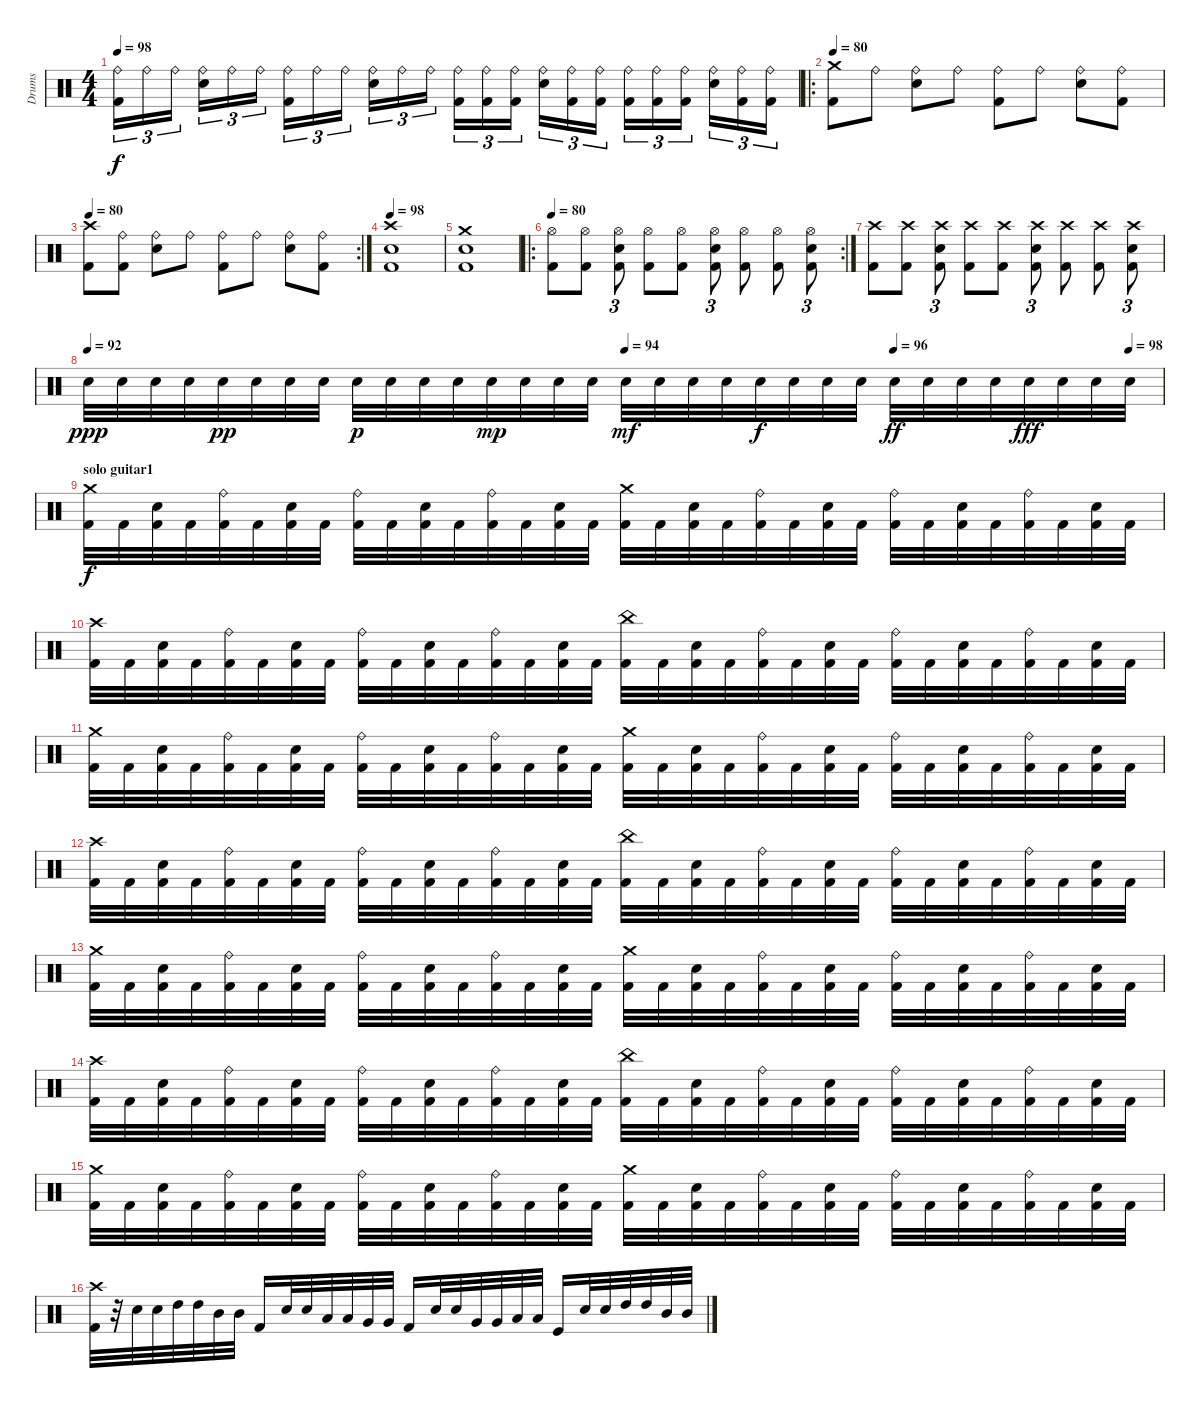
\track ("Drums" "Drums") {instrument percussion}
\staff {score}
\articulation defaults
\ts (4 4)
\tempo 98
\clef neutral
\ks c
("Ride (bell)" "Kick (hit) 2").16{tu (3 2) dy f} "Ride (bell)".16{tu (3 2)} "Ride (bell)".16{tu (3 2)} ("Ride (bell)" "Electric Snare (hit)").16{tu (3 2)} "Ride (bell)".16{tu (3 2)} "Ride (bell)".16{tu (3 2)} ("Ride (bell)" "Kick (hit) 2").16{tu (3 2)} "Ride (bell)".16{tu (3 2)} "Ride (bell)".16{tu (3 2)} ("Ride (bell)" "Electric Snare (hit)").16{tu (3 2)} "Ride (bell)".16{tu (3 2)} "Ride (bell)".16{tu (3 2)} ("Ride (bell)" "Kick (hit) 2").16{tu (3 2)} ("Ride (bell)" "Kick (hit) 2").16{tu (3 2)} ("Ride (bell)" "Kick (hit) 2").16{tu (3 2)} ("Ride (bell)" "Electric Snare (hit)").16{tu (3 2)} ("Ride (bell)" "Kick (hit) 2").16{tu (3 2)} ("Ride (bell)" "Kick (hit) 2").16{tu (3 2)} ("Ride (bell)" "Kick (hit) 2").16{tu (3 2)} ("Ride (bell)" "Kick (hit) 2").16{tu (3 2)} ("Ride (bell)" "Kick (hit) 2").16{tu (3 2)} ("Ride (bell)" "Electric Snare (hit)").16{tu (3 2)} ("Ride (bell)" "Kick (hit) 2").16{tu (3 2)} ("Ride (bell)" "Kick (hit) 2").16{tu (3 2)} |
\ro
\tempo 80
("Crash medium (hit)" "Kick (hit) 2").8 "Ride (bell)".8 ("Ride (bell)" "Electric Snare (hit)").8 "Ride (bell)".8 ("Ride (bell)" "Kick (hit) 2").8 "Ride (bell)".8 ("Ride (bell)" "Electric Snare (hit)").8 ("Ride (bell)" "Kick (hit) 2").8 |
\rc 2
\tempo 80
("Crash high (hit)" "Kick (hit) 2").8 ("Ride (bell)" "Kick (hit) 2").8 ("Ride (bell)" "Electric Snare (hit)").8 "Ride (bell)".8 ("Ride (bell)" "Kick (hit) 2").8 "Ride (bell)".8 ("Ride (bell)" "Electric Snare (hit)").8 ("Ride (bell)" "Kick (hit) 2").8 |
\tempo 98
("Crash high (hit)" "Electric Snare (hit)" "Kick (hit) 2").1 |
("Crash medium (hit)" "Electric Snare (hit)" "Kick (hit) 2").1 |
\ro
\rc 2
\tempo 80
("Hi-Hat (open)" "Kick (hit) 2").8 ("Hi-Hat (open)" "Kick (hit) 2").8 ("Hi-Hat (open)" "Electric Snare (hit)" "Kick (hit) 2").8{tu (3 2)} ("Hi-Hat (open)" "Kick (hit) 2").8 ("Hi-Hat (open)" "Kick (hit) 2").8 ("Hi-Hat (open)" "Electric Snare (hit)" "Kick (hit) 2").8{tu (3 2)} ("Hi-Hat (open)" "Kick (hit) 2").8 ("Hi-Hat (open)" "Kick (hit) 2").8 ("Hi-Hat (open)" "Electric Snare (hit)" "Kick (hit) 2").8{tu (3 2)} |
("Crash high (hit)" "Kick (hit) 2").8 ("Crash high (hit)" "Kick (hit) 2").8 ("Crash high (hit)" "Electric Snare (hit)" "Kick (hit) 2").8{tu (3 2)} ("Crash high (hit)" "Kick (hit) 2").8 ("Crash high (hit)" "Kick (hit) 2").8 ("Crash high (hit)" "Electric Snare (hit)" "Kick (hit) 2").8{tu (3 2)} ("Crash high (hit)" "Kick (hit) 2").8 ("Crash high (hit)" "Kick (hit) 2").8 ("Crash high (hit)" "Electric Snare (hit)" "Kick (hit) 2").8{tu (3 2)} |
\tempo 92
\tempo (94 0.5)
\tempo (96 0.75)
\tempo (98 0.96875)
"Electric Snare (hit)".32{dy ppp} "Electric Snare (hit)".32 "Electric Snare (hit)".32 "Electric Snare (hit)".32 "Electric Snare (hit)".32{dy pp} "Electric Snare (hit)".32 "Electric Snare (hit)".32 "Electric Snare (hit)".32 "Electric Snare (hit)".32{dy p} "Electric Snare (hit)".32 "Electric Snare (hit)".32 "Electric Snare (hit)".32 "Electric Snare (hit)".32{dy mp} "Electric Snare (hit)".32 "Electric Snare (hit)".32 "Electric Snare (hit)".32 "Electric Snare (hit)".32{dy mf} "Electric Snare (hit)".32 "Electric Snare (hit)".32 "Electric Snare (hit)".32 "Electric Snare (hit)".32{dy f} "Electric Snare (hit)".32 "Electric Snare (hit)".32 "Electric Snare (hit)".32 "Electric Snare (hit)".32{dy ff} "Electric Snare (hit)".32 "Electric Snare (hit)".32 "Electric Snare (hit)".32 "Electric Snare (hit)".32{dy fff} "Electric Snare (hit)".32 "Electric Snare (hit)".32 "Electric Snare (hit)".32 |
\section ("" "solo guitar1")
("Crash medium (hit)" "Kick (hit) 2").32{dy f} "Kick (hit) 2".32 ("Electric Snare (hit)" "Kick (hit) 2").32 "Kick (hit) 2".32 ("Ride (bell)" "Kick (hit) 2").32 "Kick (hit) 2".32 ("Electric Snare (hit)" "Kick (hit) 2").32 "Kick (hit) 2".32 ("Ride (bell)" "Kick (hit) 2").32 "Kick (hit) 2".32 ("Electric Snare (hit)" "Kick (hit) 2").32 "Kick (hit) 2".32 ("Ride (bell)" "Kick (hit) 2").32 "Kick (hit) 2".32 ("Electric Snare (hit)" "Kick (hit) 2").32 "Kick (hit) 2".32 ("Crash medium (hit)" "Kick (hit) 2").32 "Kick (hit) 2".32 ("Electric Snare (hit)" "Kick (hit) 2").32 "Kick (hit) 2".32 ("Ride (bell)" "Kick (hit) 2").32 "Kick (hit) 2".32 ("Electric Snare (hit)" "Kick (hit) 2").32 "Kick (hit) 2".32 ("Ride (bell)" "Kick (hit) 2").32 "Kick (hit) 2".32 ("Electric Snare (hit)" "Kick (hit) 2").32 "Kick (hit) 2".32 ("Ride (bell)" "Kick (hit) 2").32 "Kick (hit) 2".32 ("Electric Snare (hit)" "Kick (hit) 2").32 "Kick (hit) 2".32 |
("Crash high (hit)" "Kick (hit) 2").32 "Kick (hit) 2".32 ("Electric Snare (hit)" "Kick (hit) 2").32 "Kick (hit) 2".32 ("Ride (bell)" "Kick (hit) 2").32 "Kick (hit) 2".32 ("Electric Snare (hit)" "Kick (hit) 2").32 "Kick (hit) 2".32 ("Ride (bell)" "Kick (hit) 2").32 "Kick (hit) 2".32 ("Electric Snare (hit)" "Kick (hit) 2").32 "Kick (hit) 2".32 ("Ride (bell)" "Kick (hit) 2").32 "Kick (hit) 2".32 ("Electric Snare (hit)" "Kick (hit) 2").32 "Kick (hit) 2".32 ("China (hit)" "Kick (hit) 2").32 "Kick (hit) 2".32 ("Electric Snare (hit)" "Kick (hit) 2").32 "Kick (hit) 2".32 ("Ride (bell)" "Kick (hit) 2").32 "Kick (hit) 2".32 ("Electric Snare (hit)" "Kick (hit) 2").32 "Kick (hit) 2".32 ("Ride (bell)" "Kick (hit) 2").32 "Kick (hit) 2".32 ("Electric Snare (hit)" "Kick (hit) 2").32 "Kick (hit) 2".32 ("Ride (bell)" "Kick (hit) 2").32 "Kick (hit) 2".32 ("Electric Snare (hit)" "Kick (hit) 2").32 "Kick (hit) 2".32 |
("Crash medium (hit)" "Kick (hit) 2").32 "Kick (hit) 2".32 ("Electric Snare (hit)" "Kick (hit) 2").32 "Kick (hit) 2".32 ("Ride (bell)" "Kick (hit) 2").32 "Kick (hit) 2".32 ("Electric Snare (hit)" "Kick (hit) 2").32 "Kick (hit) 2".32 ("Ride (bell)" "Kick (hit) 2").32 "Kick (hit) 2".32 ("Electric Snare (hit)" "Kick (hit) 2").32 "Kick (hit) 2".32 ("Ride (bell)" "Kick (hit) 2").32 "Kick (hit) 2".32 ("Electric Snare (hit)" "Kick (hit) 2").32 "Kick (hit) 2".32 ("Crash medium (hit)" "Kick (hit) 2").32 "Kick (hit) 2".32 ("Electric Snare (hit)" "Kick (hit) 2").32 "Kick (hit) 2".32 ("Ride (bell)" "Kick (hit) 2").32 "Kick (hit) 2".32 ("Electric Snare (hit)" "Kick (hit) 2").32 "Kick (hit) 2".32 ("Ride (bell)" "Kick (hit) 2").32 "Kick (hit) 2".32 ("Electric Snare (hit)" "Kick (hit) 2").32 "Kick (hit) 2".32 ("Ride (bell)" "Kick (hit) 2").32 "Kick (hit) 2".32 ("Electric Snare (hit)" "Kick (hit) 2").32 "Kick (hit) 2".32 |
("Crash high (hit)" "Kick (hit) 2").32 "Kick (hit) 2".32 ("Electric Snare (hit)" "Kick (hit) 2").32 "Kick (hit) 2".32 ("Ride (bell)" "Kick (hit) 2").32 "Kick (hit) 2".32 ("Electric Snare (hit)" "Kick (hit) 2").32 "Kick (hit) 2".32 ("Ride (bell)" "Kick (hit) 2").32 "Kick (hit) 2".32 ("Electric Snare (hit)" "Kick (hit) 2").32 "Kick (hit) 2".32 ("Ride (bell)" "Kick (hit) 2").32 "Kick (hit) 2".32 ("Electric Snare (hit)" "Kick (hit) 2").32 "Kick (hit) 2".32 ("China (hit)" "Kick (hit) 2").32 "Kick (hit) 2".32 ("Electric Snare (hit)" "Kick (hit) 2").32 "Kick (hit) 2".32 ("Ride (bell)" "Kick (hit) 2").32 "Kick (hit) 2".32 ("Electric Snare (hit)" "Kick (hit) 2").32 "Kick (hit) 2".32 ("Ride (bell)" "Kick (hit) 2").32 "Kick (hit) 2".32 ("Electric Snare (hit)" "Kick (hit) 2").32 "Kick (hit) 2".32 ("Ride (bell)" "Kick (hit) 2").32 "Kick (hit) 2".32 ("Electric Snare (hit)" "Kick (hit) 2").32 "Kick (hit) 2".32 |
("Crash medium (hit)" "Kick (hit) 2").32 "Kick (hit) 2".32 ("Electric Snare (hit)" "Kick (hit) 2").32 "Kick (hit) 2".32 ("Ride (bell)" "Kick (hit) 2").32 "Kick (hit) 2".32 ("Electric Snare (hit)" "Kick (hit) 2").32 "Kick (hit) 2".32 ("Ride (bell)" "Kick (hit) 2").32 "Kick (hit) 2".32 ("Electric Snare (hit)" "Kick (hit) 2").32 "Kick (hit) 2".32 ("Ride (bell)" "Kick (hit) 2").32 "Kick (hit) 2".32 ("Electric Snare (hit)" "Kick (hit) 2").32 "Kick (hit) 2".32 ("Crash medium (hit)" "Kick (hit) 2").32 "Kick (hit) 2".32 ("Electric Snare (hit)" "Kick (hit) 2").32 "Kick (hit) 2".32 ("Ride (bell)" "Kick (hit) 2").32 "Kick (hit) 2".32 ("Electric Snare (hit)" "Kick (hit) 2").32 "Kick (hit) 2".32 ("Ride (bell)" "Kick (hit) 2").32 "Kick (hit) 2".32 ("Electric Snare (hit)" "Kick (hit) 2").32 "Kick (hit) 2".32 ("Ride (bell)" "Kick (hit) 2").32 "Kick (hit) 2".32 ("Electric Snare (hit)" "Kick (hit) 2").32 "Kick (hit) 2".32 |
("Crash high (hit)" "Kick (hit) 2").32 "Kick (hit) 2".32 ("Electric Snare (hit)" "Kick (hit) 2").32 "Kick (hit) 2".32 ("Ride (bell)" "Kick (hit) 2").32 "Kick (hit) 2".32 ("Electric Snare (hit)" "Kick (hit) 2").32 "Kick (hit) 2".32 ("Ride (bell)" "Kick (hit) 2").32 "Kick (hit) 2".32 ("Electric Snare (hit)" "Kick (hit) 2").32 "Kick (hit) 2".32 ("Ride (bell)" "Kick (hit) 2").32 "Kick (hit) 2".32 ("Electric Snare (hit)" "Kick (hit) 2").32 "Kick (hit) 2".32 ("China (hit)" "Kick (hit) 2").32 "Kick (hit) 2".32 ("Electric Snare (hit)" "Kick (hit) 2").32 "Kick (hit) 2".32 ("Ride (bell)" "Kick (hit) 2").32 "Kick (hit) 2".32 ("Electric Snare (hit)" "Kick (hit) 2").32 "Kick (hit) 2".32 ("Ride (bell)" "Kick (hit) 2").32 "Kick (hit) 2".32 ("Electric Snare (hit)" "Kick (hit) 2").32 "Kick (hit) 2".32 ("Ride (bell)" "Kick (hit) 2").32 "Kick (hit) 2".32 ("Electric Snare (hit)" "Kick (hit) 2").32 "Kick (hit) 2".32 |
("Crash medium (hit)" "Kick (hit) 2").32 "Kick (hit) 2".32 ("Electric Snare (hit)" "Kick (hit) 2").32 "Kick (hit) 2".32 ("Ride (bell)" "Kick (hit) 2").32 "Kick (hit) 2".32 ("Electric Snare (hit)" "Kick (hit) 2").32 "Kick (hit) 2".32 ("Ride (bell)" "Kick (hit) 2").32 "Kick (hit) 2".32 ("Electric Snare (hit)" "Kick (hit) 2").32 "Kick (hit) 2".32 ("Ride (bell)" "Kick (hit) 2").32 "Kick (hit) 2".32 ("Electric Snare (hit)" "Kick (hit) 2").32 "Kick (hit) 2".32 ("Crash medium (hit)" "Kick (hit) 2").32 "Kick (hit) 2".32 ("Electric Snare (hit)" "Kick (hit) 2").32 "Kick (hit) 2".32 ("Ride (bell)" "Kick (hit) 2").32 "Kick (hit) 2".32 ("Electric Snare (hit)" "Kick (hit) 2").32 "Kick (hit) 2".32 ("Ride (bell)" "Kick (hit) 2").32 "Kick (hit) 2".32 ("Electric Snare (hit)" "Kick (hit) 2").32 "Kick (hit) 2".32 ("Ride (bell)" "Kick (hit) 2").32 "Kick (hit) 2".32 ("Electric Snare (hit)" "Kick (hit) 2").32 "Kick (hit) 2".32 |
("Crash high (hit)" "Kick (hit) 2").32 r.32 "Electric Snare (hit)".32 "Electric Snare (hit)".32 "High Tom (hit)".32 "High Tom (hit)".32 "Mid Tom (hit)".32 "Mid Tom (hit)".32 "Kick (hit) 2".16 "Electric Snare (hit)".32 "Electric Snare (hit)".32 "Low Tom (hit)".32 "Low Tom (hit)".32 "Very Low Tom (hit)".32 "Very Low Tom (hit)".32 "Kick (hit) 2".16 "Electric Snare (hit)".32 "Electric Snare (hit)".32 "Very Low Tom (hit)".32 "Very Low Tom (hit)".32 "Low Floor Tom (hit)".32 "Low Floor Tom (hit)".32 "Kick (hit)".16 "Electric Snare (hit)".32 "Electric Snare (hit)".32 "High Tom (hit)".32 "High Tom (hit)".32 "Mid Tom (hit)".32 "Mid Tom (hit)".32
